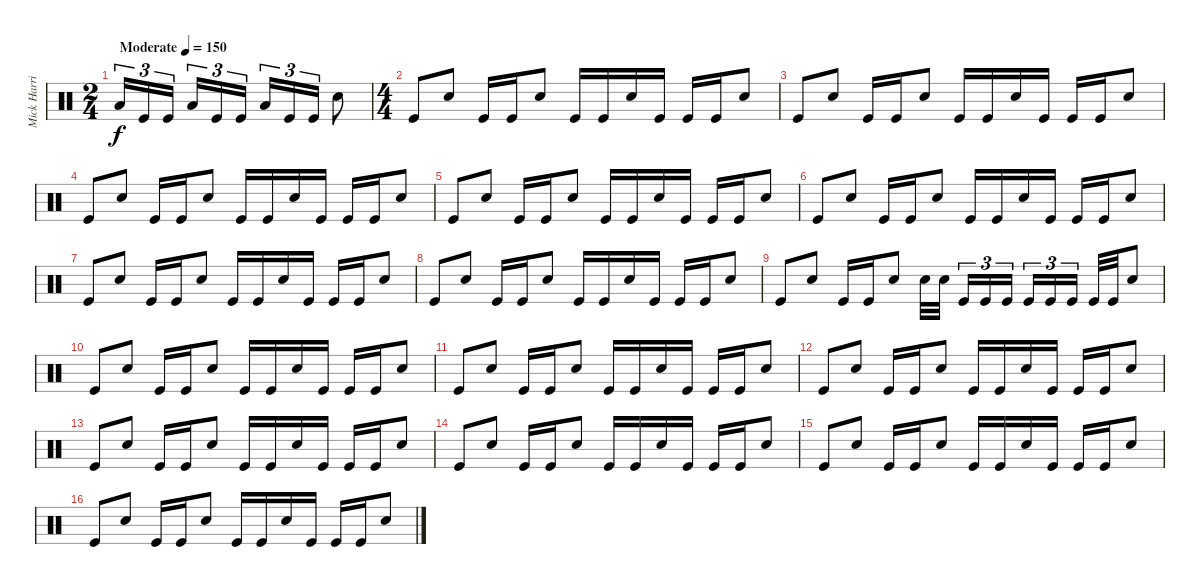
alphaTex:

\track ("Mick Harris" "Mick Harri") {instrument percussion}
\staff {score}
\articulation defaults
\ts (2 4)
\tempo (150 "Moderate")
\clef neutral
\ks c "Low Floor Tom (hit)".16{tu (3 2) dy f} "Kick (hit)".16{tu (3 2)} "Kick (hit)".16{tu (3 2) beam splitsecondary} "Low Floor Tom (hit)".16{tu (3 2)} "Kick (hit)".16{tu (3 2)} "Kick (hit)".16{tu (3 2)} "Low Floor Tom (hit)".16{tu (3 2)} "Kick (hit)".16{tu (3 2)} "Kick (hit)".16{tu (3 2)} "Snare (hit) 2".8
|
\ts (4 4)
"Kick (hit)".8 "Snare (hit) 2".8 "Kick (hit)".16 "Kick (hit)".16 "Snare (hit) 2".8 "Kick (hit)".16 "Kick (hit)".16 "Snare (hit) 2".16 "Kick (hit)".16 "Kick (hit)".16 "Kick (hit)".16 "Snare (hit) 2".8 |
"Kick (hit)".8 "Snare (hit) 2".8 "Kick (hit)".16 "Kick (hit)".16 "Snare (hit) 2".8 "Kick (hit)".16 "Kick (hit)".16 "Snare (hit) 2".16 "Kick (hit)".16 "Kick (hit)".16 "Kick (hit)".16 "Snare (hit) 2".8 |
"Kick (hit)".8 "Snare (hit) 2".8 "Kick (hit)".16 "Kick (hit)".16 "Snare (hit) 2".8 "Kick (hit)".16 "Kick (hit)".16 "Snare (hit) 2".16 "Kick (hit)".16 "Kick (hit)".16 "Kick (hit)".16 "Snare (hit) 2".8 |
"Kick (hit)".8 "Snare (hit) 2".8 "Kick (hit)".16 "Kick (hit)".16 "Snare (hit) 2".8 "Kick (hit)".16 "Kick (hit)".16 "Snare (hit) 2".16 "Kick (hit)".16 "Kick (hit)".16 "Kick (hit)".16 "Snare (hit) 2".8 |
"Kick (hit)".8 "Snare (hit) 2".8 "Kick (hit)".16 "Kick (hit)".16 "Snare (hit) 2".8 "Kick (hit)".16 "Kick (hit)".16 "Snare (hit) 2".16 "Kick (hit)".16 "Kick (hit)".16 "Kick (hit)".16 "Snare (hit) 2".8 |
"Kick (hit)".8 "Snare (hit) 2".8 "Kick (hit)".16 "Kick (hit)".16 "Snare (hit) 2".8 "Kick (hit)".16 "Kick (hit)".16 "Snare (hit) 2".16 "Kick (hit)".16 "Kick (hit)".16 "Kick (hit)".16 "Snare (hit) 2".8 |
"Kick (hit)".8 "Snare (hit) 2".8 "Kick (hit)".16 "Kick (hit)".16 "Snare (hit) 2".8 "Kick (hit)".16 "Kick (hit)".16 "Snare (hit) 2".16 "Kick (hit)".16 "Kick (hit)".16 "Kick (hit)".16 "Snare (hit) 2".8 |
"Kick (hit)".8 "Snare (hit) 2".8 "Kick (hit)".16 "Kick (hit)".16 "Snare (hit) 2".8 "Snare (hit) 2".32 "Snare (hit) 2".32{beam splitsecondary} "Kick (hit)".16{tu (3 2)} "Kick (hit)".16{tu (3 2)} "Kick (hit)".16{tu (3 2) beam splitsecondary} "Kick (hit)".16{tu (3 2)} "Kick (hit)".16{tu (3 2)} "Kick (hit)".16{tu (3 2) beam splitsecondary} "Kick (hit)".32 "Kick (hit)".32 "Snare (hit) 2".8 |
"Kick (hit)".8 "Snare (hit) 2".8 "Kick (hit)".16 "Kick (hit)".16 "Snare (hit) 2".8 "Kick (hit)".16 "Kick (hit)".16 "Snare (hit) 2".16 "Kick (hit)".16 "Kick (hit)".16 "Kick (hit)".16 "Snare (hit) 2".8 |
"Kick (hit)".8 "Snare (hit) 2".8 "Kick (hit)".16 "Kick (hit)".16 "Snare (hit) 2".8 "Kick (hit)".16 "Kick (hit)".16 "Snare (hit) 2".16 "Kick (hit)".16 "Kick (hit)".16 "Kick (hit)".16 "Snare (hit) 2".8 |
"Kick (hit)".8 "Snare (hit) 2".8 "Kick (hit)".16 "Kick (hit)".16 "Snare (hit) 2".8 "Kick (hit)".16 "Kick (hit)".16 "Snare (hit) 2".16 "Kick (hit)".16 "Kick (hit)".16 "Kick (hit)".16 "Snare (hit) 2".8 |
"Kick (hit)".8 "Snare (hit) 2".8 "Kick (hit)".16 "Kick (hit)".16 "Snare (hit) 2".8 "Kick (hit)".16 "Kick (hit)".16 "Snare (hit) 2".16 "Kick (hit)".16 "Kick (hit)".16 "Kick (hit)".16 "Snare (hit) 2".8 |
"Kick (hit)".8 "Snare (hit) 2".8 "Kick (hit)".16 "Kick (hit)".16 "Snare (hit) 2".8 "Kick (hit)".16 "Kick (hit)".16 "Snare (hit) 2".16 "Kick (hit)".16 "Kick (hit)".16 "Kick (hit)".16 "Snare (hit) 2".8 |
"Kick (hit)".8 "Snare (hit) 2".8 "Kick (hit)".16 "Kick (hit)".16 "Snare (hit) 2".8 "Kick (hit)".16 "Kick (hit)".16 "Snare (hit) 2".16 "Kick (hit)".16 "Kick (hit)".16 "Kick (hit)".16 "Snare (hit) 2".8 |
"Kick (hit)".8 "Snare (hit) 2".8 "Kick (hit)".16 "Kick (hit)".16 "Snare (hit) 2".8 "Kick (hit)".16 "Kick (hit)".16 "Snare (hit) 2".16 "Kick (hit)".16 "Kick (hit)".16 "Kick (hit)".16 "Snare (hit) 2".8
